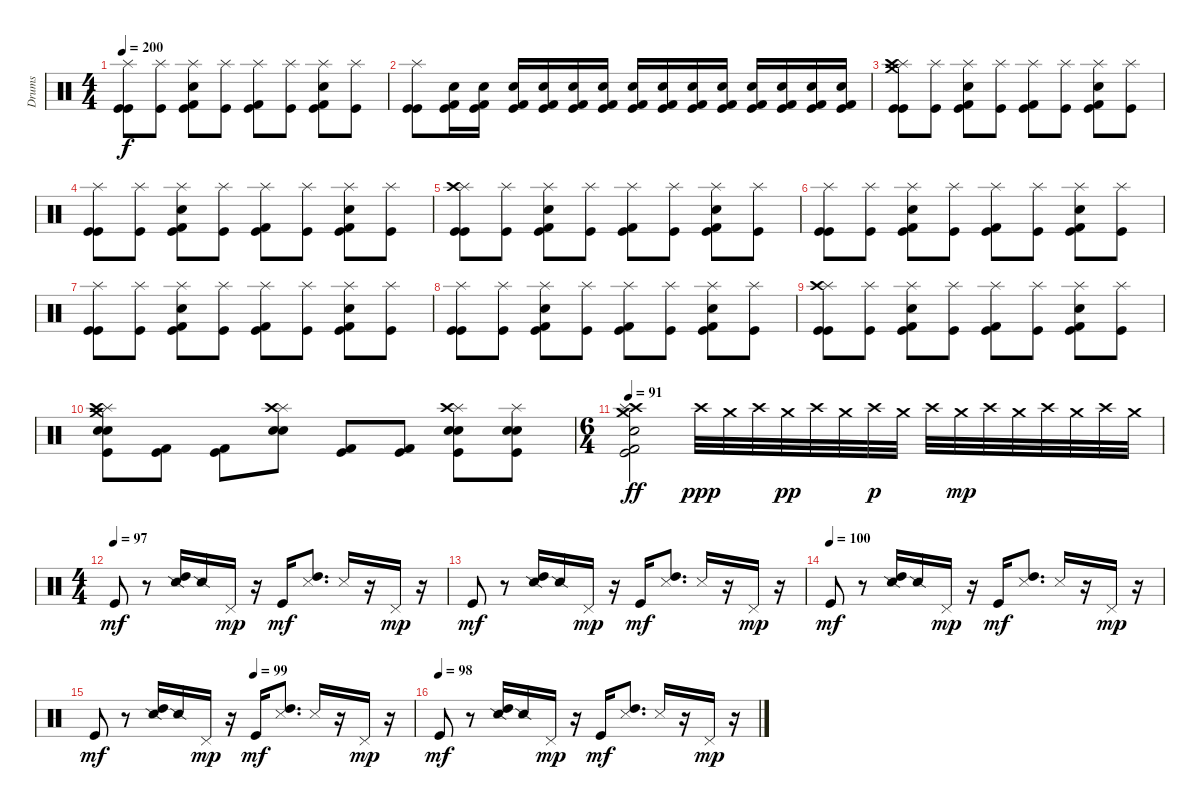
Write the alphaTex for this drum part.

\track ("Drums" "Drums") {instrument percussion}
\staff {score}
\articulation defaults
\ts (4 4)
\tempo 200
\clef neutral
\ks c
("Splash (hit)" "Kick (hit)" "Kick (hit)").8{dy f} ("Splash (hit)" "Kick (hit)").8 ("Splash (hit)" "Snare (hit) 2" "Kick (hit) 2" "Kick (hit)").8 ("Splash (hit)" "Kick (hit)").8 ("Splash (hit)" "Kick (hit) 2" "Kick (hit)").8 ("Splash (hit)" "Kick (hit)").8 ("Splash (hit)" "Snare (hit) 2" "Kick (hit) 2" "Kick (hit)").8 ("Splash (hit)" "Kick (hit)").8 |
("Splash (hit)" "Kick (hit)" "Kick (hit)").8 ("Snare (hit) 2" "Kick (hit) 2" "Kick (hit)").16 ("Snare (hit) 2" "Kick (hit) 2" "Kick (hit)").16 ("Snare (hit) 2" "Kick (hit) 2" "Kick (hit)").16 ("Snare (hit) 2" "Kick (hit) 2" "Kick (hit)").16 ("Snare (hit) 2" "Kick (hit) 2" "Kick (hit)").16 ("Snare (hit) 2" "Kick (hit) 2" "Kick (hit)").16 ("Snare (hit) 2" "Kick (hit) 2" "Kick (hit)").16 ("Snare (hit) 2" "Kick (hit) 2" "Kick (hit)").16 ("Snare (hit) 2" "Kick (hit) 2" "Kick (hit)").16 ("Snare (hit) 2" "Kick (hit) 2" "Kick (hit)").16 ("Snare (hit) 2" "Kick (hit) 2" "Kick (hit)").16 ("Snare (hit) 2" "Kick (hit) 2" "Kick (hit)").16 ("Snare (hit) 2" "Kick (hit) 2" "Kick (hit)").16 ("Snare (hit) 2" "Kick (hit) 2" "Kick (hit)").16 |
("Splash (hit)" "Crash high (hit)" "Crash medium (hit)" "Kick (hit)" "Kick (hit)").8 ("Splash (hit)" "Kick (hit)").8 ("Splash (hit)" "Snare (hit) 2" "Kick (hit) 2" "Kick (hit)").8 ("Splash (hit)" "Kick (hit)").8 ("Splash (hit)" "Kick (hit) 2" "Kick (hit)").8 ("Splash (hit)" "Kick (hit)").8 ("Splash (hit)" "Snare (hit) 2" "Kick (hit) 2" "Kick (hit)").8 ("Splash (hit)" "Kick (hit)").8 |
("Splash (hit)" "Kick (hit)" "Kick (hit)").8 ("Splash (hit)" "Kick (hit)").8 ("Splash (hit)" "Snare (hit) 2" "Kick (hit) 2" "Kick (hit)").8 ("Splash (hit)" "Kick (hit)").8 ("Splash (hit)" "Kick (hit) 2" "Kick (hit)").8 ("Splash (hit)" "Kick (hit)").8 ("Splash (hit)" "Snare (hit) 2" "Kick (hit) 2" "Kick (hit)").8 ("Splash (hit)" "Kick (hit)").8 |
("Splash (hit)" "Crash high (hit)" "Kick (hit)" "Kick (hit)").8 ("Splash (hit)" "Kick (hit)").8 ("Splash (hit)" "Snare (hit) 2" "Kick (hit) 2" "Kick (hit)").8 ("Splash (hit)" "Kick (hit)").8 ("Splash (hit)" "Kick (hit) 2" "Kick (hit)").8 ("Splash (hit)" "Kick (hit)").8 ("Splash (hit)" "Snare (hit) 2" "Kick (hit) 2" "Kick (hit)").8 ("Splash (hit)" "Kick (hit)").8 |
("Splash (hit)" "Kick (hit)" "Kick (hit)").8 ("Splash (hit)" "Kick (hit)").8 ("Splash (hit)" "Snare (hit) 2" "Kick (hit) 2" "Kick (hit)").8 ("Splash (hit)" "Kick (hit)").8 ("Splash (hit)" "Kick (hit) 2" "Kick (hit)").8 ("Splash (hit)" "Kick (hit)").8 ("Splash (hit)" "Snare (hit) 2" "Kick (hit) 2" "Kick (hit)").8 ("Splash (hit)" "Kick (hit)").8 |
("Splash (hit)" "Kick (hit)" "Kick (hit)").8 ("Splash (hit)" "Kick (hit)").8 ("Splash (hit)" "Snare (hit) 2" "Kick (hit) 2" "Kick (hit)").8 ("Splash (hit)" "Kick (hit)").8 ("Splash (hit)" "Kick (hit) 2" "Kick (hit)").8 ("Splash (hit)" "Kick (hit)").8 ("Splash (hit)" "Snare (hit) 2" "Kick (hit) 2" "Kick (hit)").8 ("Splash (hit)" "Kick (hit)").8 |
("Splash (hit)" "Kick (hit)" "Kick (hit)").8 ("Splash (hit)" "Kick (hit)").8 ("Splash (hit)" "Snare (hit) 2" "Kick (hit) 2" "Kick (hit)").8 ("Splash (hit)" "Kick (hit)").8 ("Splash (hit)" "Kick (hit) 2" "Kick (hit)").8 ("Splash (hit)" "Kick (hit)").8 ("Splash (hit)" "Snare (hit) 2" "Kick (hit) 2" "Kick (hit)").8 ("Splash (hit)" "Kick (hit)").8 |
("Splash (hit)" "Crash high (hit)" "Kick (hit)" "Kick (hit)").8 ("Splash (hit)" "Kick (hit)").8 ("Splash (hit)" "Snare (hit) 2" "Kick (hit) 2" "Kick (hit)").8 ("Splash (hit)" "Kick (hit)").8 ("Splash (hit)" "Kick (hit) 2" "Kick (hit)").8 ("Splash (hit)" "Kick (hit)").8 ("Splash (hit)" "Snare (hit) 2" "Kick (hit) 2" "Kick (hit)").8 ("Splash (hit)" "Kick (hit)").8 |
("Splash (hit)" "Crash medium (hit)" "Electric Snare (hit)" "Snare (hit) 2" "Crash high (hit)" "Kick (hit)").8 ("Kick (hit) 2" "Kick (hit)").8 ("Kick (hit) 2" "Kick (hit)").8 ("Splash (hit)" "Crash high (hit)" "Electric Snare (hit)" "Snare (hit) 2").8 ("Kick (hit) 2" "Kick (hit)").8 ("Kick (hit) 2" "Kick (hit)").8 ("Splash (hit)" "Crash high (hit)" "Electric Snare (hit)" "Snare (hit) 2" "Kick (hit)").8 ("Splash (hit)" "Electric Snare (hit)" "Snare (hit) 2" "Kick (hit)").8 |
\ts (6 4)
\tempo 91
("Crash high (hit)" "Crash medium (hit)" "Splash (hit)" "Electric Snare (hit)" "Kick (hit)" "Kick (hit) 2").2{dy ff} "Crash high (hit)".32{dy ppp} "Crash medium (hit)".32 "Crash high (hit)".32 "Crash medium (hit)".32{dy pp} "Crash high (hit)".32 "Crash medium (hit)".32 "Crash high (hit)".32{dy p} "Crash medium (hit)".32 "Crash high (hit)".32 "Crash medium (hit)".32{dy mp} "Crash high (hit)".32 "Crash medium (hit)".32 "Crash high (hit)".32 "Crash medium (hit)".32 "Crash high (hit)".32 "Crash medium (hit)".32 |
\ts (4 4)
\tempo (97)
"Kick (hit)".8{dy mf} r.8 ("High Tom (hit)" "Snare (side stick) 2").16 "Snare (side stick) 2".16 "Pedal Hi-Hat (hit)".16{dy mp} r.16 "Kick (hit)".16{dy mf} ("High Tom (hit)" "Snare (side stick) 3").8{d} "Snare (side stick) 3".16 r.16 "Pedal Hi-Hat (hit)".16{dy mp} r.16 |
"Kick (hit)".8{dy mf} r.8 ("High Tom (hit)" "Snare (side stick) 2").16 "Snare (side stick) 2".16 "Pedal Hi-Hat (hit)".16{dy mp} r.16 "Kick (hit)".16{dy mf} ("High Tom (hit)" "Snare (side stick) 3").8{d} "Snare (side stick) 3".16 r.16 "Pedal Hi-Hat (hit)".16{dy mp} r.16 |
\tempo (100)
"Kick (hit)".8{dy mf} r.8 ("High Tom (hit)" "Snare (side stick) 2").16 "Snare (side stick) 2".16 "Pedal Hi-Hat (hit)".16{dy mp} r.16 "Kick (hit)".16{dy mf} ("High Tom (hit)" "Snare (side stick) 3").8{d} "Snare (side stick) 3".16 r.16 "Pedal Hi-Hat (hit)".16{dy mp} r.16 |
\tempo (99 0.5)
"Kick (hit)".8{dy mf} r.8 ("High Tom (hit)" "Snare (side stick) 2").16 "Snare (side stick) 2".16 "Pedal Hi-Hat (hit)".16{dy mp} r.16 "Kick (hit)".16{dy mf} ("High Tom (hit)" "Snare (side stick) 3").8{d} "Snare (side stick) 3".16 r.16 "Pedal Hi-Hat (hit)".16{dy mp} r.16 |
\tempo (98)
"Kick (hit)".8{dy mf} r.8 ("High Tom (hit)" "Snare (side stick) 2").16 "Snare (side stick) 2".16 "Pedal Hi-Hat (hit)".16{dy mp} r.16 "Kick (hit)".16{dy mf} ("High Tom (hit)" "Snare (side stick) 3").8{d} "Snare (side stick) 3".16 r.16 "Pedal Hi-Hat (hit)".16{dy mp} r.16
